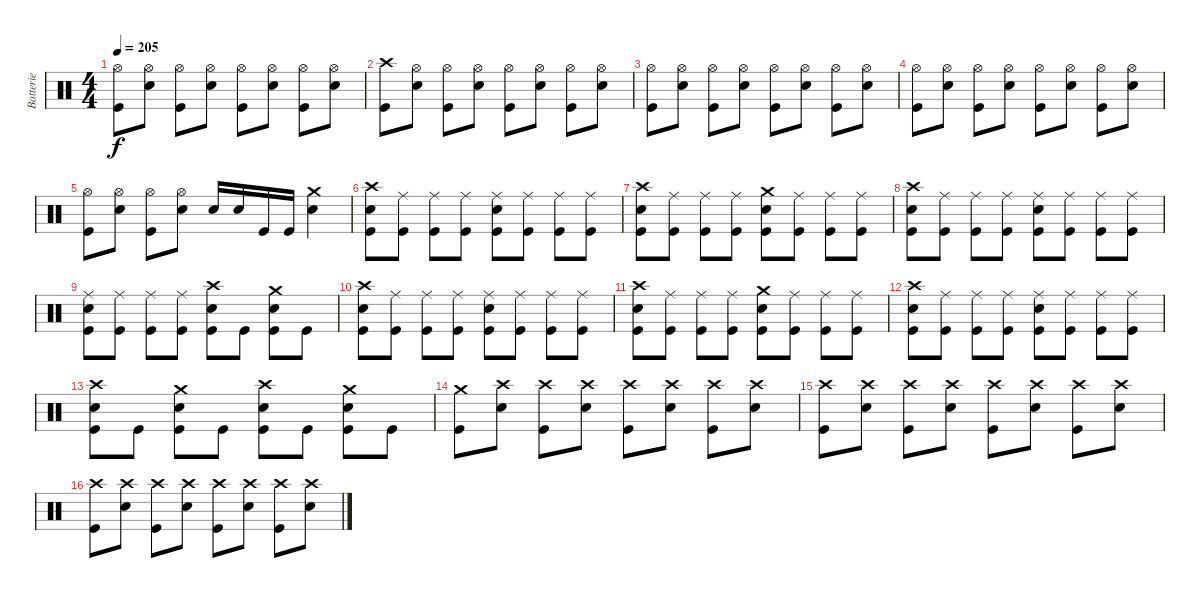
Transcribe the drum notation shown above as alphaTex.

\track ("Batterie" "Batterie") {instrument percussion}
\staff {score}
\articulation defaults
\ts (4 4)
\tempo 205
\clef neutral
\ks c
("Hi-Hat (open)" "Kick (hit)").8{dy f} ("Hi-Hat (open)" "Electric Snare (hit)").8 ("Hi-Hat (open)" "Kick (hit)").8 ("Hi-Hat (open)" "Electric Snare (hit)").8 ("Hi-Hat (open)" "Kick (hit)").8 ("Hi-Hat (open)" "Electric Snare (hit)").8 ("Hi-Hat (open)" "Kick (hit)").8 ("Hi-Hat (open)" "Electric Snare (hit)").8 |
("Crash high (hit)" "Kick (hit)").8 ("Hi-Hat (open)" "Electric Snare (hit)").8 ("Hi-Hat (open)" "Kick (hit)").8 ("Hi-Hat (open)" "Electric Snare (hit)").8 ("Hi-Hat (open)" "Kick (hit)").8 ("Hi-Hat (open)" "Electric Snare (hit)").8 ("Hi-Hat (open)" "Kick (hit)").8 ("Hi-Hat (open)" "Electric Snare (hit)").8 |
("Hi-Hat (open)" "Kick (hit)").8 ("Hi-Hat (open)" "Electric Snare (hit)").8 ("Hi-Hat (open)" "Kick (hit)").8 ("Hi-Hat (open)" "Electric Snare (hit)").8 ("Hi-Hat (open)" "Kick (hit)").8 ("Hi-Hat (open)" "Electric Snare (hit)").8 ("Hi-Hat (open)" "Kick (hit)").8 ("Hi-Hat (open)" "Electric Snare (hit)").8 |
("Hi-Hat (open)" "Kick (hit)").8 ("Hi-Hat (open)" "Electric Snare (hit)").8 ("Hi-Hat (open)" "Kick (hit)").8 ("Hi-Hat (open)" "Electric Snare (hit)").8 ("Hi-Hat (open)" "Kick (hit)").8 ("Hi-Hat (open)" "Electric Snare (hit)").8 ("Hi-Hat (open)" "Kick (hit)").8 ("Hi-Hat (open)" "Electric Snare (hit)").8 |
("Hi-Hat (open)" "Kick (hit)").8 ("Hi-Hat (open)" "Electric Snare (hit)").8 ("Hi-Hat (open)" "Kick (hit)").8 ("Hi-Hat (open)" "Electric Snare (hit)").8 "Electric Snare (hit)".16 "Electric Snare (hit)".16 "Kick (hit)".16 "Kick (hit)".16 ("Crash medium (hit)" "Electric Snare (hit)").4 |
("Crash high (hit)" "Electric Snare (hit)" "Kick (hit)").8 ("Ride (middle)" "Kick (hit)").8 ("Ride (middle)" "Kick (hit)").8 ("Ride (middle)" "Kick (hit)").8 ("Ride (middle)" "Electric Snare (hit)" "Kick (hit)").8 ("Ride (middle)" "Kick (hit)").8 ("Ride (middle)" "Kick (hit)").8 ("Ride (middle)" "Kick (hit)").8 |
("Crash high (hit)" "Electric Snare (hit)" "Kick (hit)").8 ("Ride (middle)" "Kick (hit)").8 ("Ride (middle)" "Kick (hit)").8 ("Ride (middle)" "Kick (hit)").8 ("Crash medium (hit)" "Electric Snare (hit)" "Kick (hit)").8 ("Ride (middle)" "Kick (hit)").8 ("Ride (middle)" "Kick (hit)").8 ("Ride (middle)" "Kick (hit)").8 |
("Crash high (hit)" "Electric Snare (hit)" "Kick (hit)").8 ("Ride (middle)" "Kick (hit)").8 ("Ride (middle)" "Kick (hit)").8 ("Ride (middle)" "Kick (hit)").8 ("Ride (middle)" "Electric Snare (hit)" "Kick (hit)").8 ("Ride (middle)" "Kick (hit)").8 ("Ride (middle)" "Kick (hit)").8 ("Ride (middle)" "Kick (hit)").8 |
("Ride (middle)" "Electric Snare (hit)" "Kick (hit)").8 ("Ride (middle)" "Kick (hit)").8 ("Ride (middle)" "Kick (hit)").8 ("Ride (middle)" "Kick (hit)").8 ("Crash high (hit)" "Electric Snare (hit)" "Kick (hit)").8 "Kick (hit)".8 ("Crash medium (hit)" "Electric Snare (hit)" "Kick (hit)").8 "Kick (hit)".8 |
("Crash high (hit)" "Electric Snare (hit)" "Kick (hit)").8 ("Ride (middle)" "Kick (hit)").8 ("Ride (middle)" "Kick (hit)").8 ("Ride (middle)" "Kick (hit)").8 ("Ride (middle)" "Electric Snare (hit)" "Kick (hit)").8 ("Ride (middle)" "Kick (hit)").8 ("Ride (middle)" "Kick (hit)").8 ("Ride (middle)" "Kick (hit)").8 |
("Crash high (hit)" "Electric Snare (hit)" "Kick (hit)").8 ("Ride (middle)" "Kick (hit)").8 ("Ride (middle)" "Kick (hit)").8 ("Ride (middle)" "Kick (hit)").8 ("Crash medium (hit)" "Electric Snare (hit)" "Kick (hit)").8 ("Ride (middle)" "Kick (hit)").8 ("Ride (middle)" "Kick (hit)").8 ("Ride (middle)" "Kick (hit)").8 |
("Crash high (hit)" "Electric Snare (hit)" "Kick (hit)").8 ("Ride (middle)" "Kick (hit)").8 ("Ride (middle)" "Kick (hit)").8 ("Ride (middle)" "Kick (hit)").8 ("Ride (middle)" "Electric Snare (hit)" "Kick (hit)").8 ("Ride (middle)" "Kick (hit)").8 ("Ride (middle)" "Kick (hit)").8 ("Ride (middle)" "Kick (hit)").8 |
("Crash high (hit)" "Electric Snare (hit)" "Kick (hit)").8 "Kick (hit)".8 ("Crash medium (hit)" "Electric Snare (hit)" "Kick (hit)").8 "Kick (hit)".8 ("Crash high (hit)" "Electric Snare (hit)" "Kick (hit)").8 "Kick (hit)".8 ("Crash medium (hit)" "Electric Snare (hit)" "Kick (hit)").8 "Kick (hit)".8 |
("Crash medium (hit)" "Kick (hit)").8 ("Crash high (hit)" "Electric Snare (hit)").8 ("Crash high (hit)" "Kick (hit)").8 ("Crash high (hit)" "Electric Snare (hit)").8 ("Crash high (hit)" "Kick (hit)").8 ("Crash high (hit)" "Electric Snare (hit)").8 ("Crash high (hit)" "Kick (hit)").8 ("Crash high (hit)" "Electric Snare (hit)").8 |
("Crash high (hit)" "Kick (hit)").8 ("Crash high (hit)" "Electric Snare (hit)").8 ("Crash high (hit)" "Kick (hit)").8 ("Crash high (hit)" "Electric Snare (hit)").8 ("Crash high (hit)" "Kick (hit)").8 ("Crash high (hit)" "Electric Snare (hit)").8 ("Crash high (hit)" "Kick (hit)").8 ("Crash high (hit)" "Electric Snare (hit)").8 |
("Crash high (hit)" "Kick (hit)").8 ("Crash high (hit)" "Electric Snare (hit)").8 ("Crash high (hit)" "Kick (hit)").8 ("Crash high (hit)" "Electric Snare (hit)").8 ("Crash high (hit)" "Kick (hit)").8 ("Crash high (hit)" "Electric Snare (hit)").8 ("Crash high (hit)" "Kick (hit)").8 ("Crash high (hit)" "Electric Snare (hit)").8
